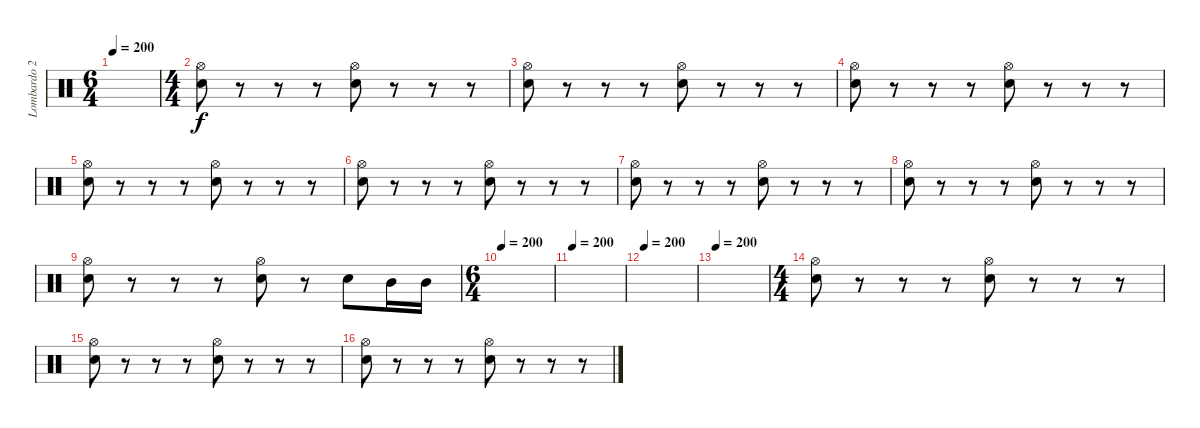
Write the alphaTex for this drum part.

\track ("Lombardo 2" "Lombardo 2") {instrument percussion}
\staff {score}
\articulation defaults
\ts (6 4)
\tempo 200
\clef neutral
\ks c
|
\ts (4 4)
("Hi-Hat (open)" "Electric Snare (hit)").8 r.8 r.8 r.8 ("Hi-Hat (open)" "Electric Snare (hit)").8 r.8 r.8 r.8 |
("Hi-Hat (open)" "Electric Snare (hit)").8 r.8 r.8 r.8 ("Hi-Hat (open)" "Electric Snare (hit)").8 r.8 r.8 r.8 |
("Hi-Hat (open)" "Electric Snare (hit)").8 r.8 r.8 r.8 ("Hi-Hat (open)" "Electric Snare (hit)").8 r.8 r.8 r.8 |
("Hi-Hat (open)" "Electric Snare (hit)").8 r.8 r.8 r.8 ("Hi-Hat (open)" "Electric Snare (hit)").8 r.8 r.8 r.8 |
("Hi-Hat (open)" "Electric Snare (hit)").8 r.8 r.8 r.8 ("Hi-Hat (open)" "Electric Snare (hit)").8 r.8 r.8 r.8 |
("Hi-Hat (open)" "Electric Snare (hit)").8 r.8 r.8 r.8 ("Hi-Hat (open)" "Electric Snare (hit)").8 r.8 r.8 r.8 |
("Hi-Hat (open)" "Electric Snare (hit)").8 r.8 r.8 r.8 ("Hi-Hat (open)" "Electric Snare (hit)").8 r.8 r.8 r.8 |
("Hi-Hat (open)" "Electric Snare (hit)").8 r.8 r.8 r.8 ("Hi-Hat (open)" "Electric Snare (hit)").8 r.8 "Electric Snare (hit)".8 "Mid Tom (hit)".16 "Mid Tom (hit)".16 |
\ts (6 4)
\tempo 200
|
\tempo 200
|
\tempo 200
|
\tempo 200
|
\ts (4 4)
("Hi-Hat (open)" "Electric Snare (hit)").8 r.8 r.8 r.8 ("Hi-Hat (open)" "Electric Snare (hit)").8 r.8 r.8 r.8 |
("Hi-Hat (open)" "Electric Snare (hit)").8 r.8 r.8 r.8 ("Hi-Hat (open)" "Electric Snare (hit)").8 r.8 r.8 r.8 |
("Hi-Hat (open)" "Electric Snare (hit)").8 r.8 r.8 r.8 ("Hi-Hat (open)" "Electric Snare (hit)").8 r.8 r.8 r.8
